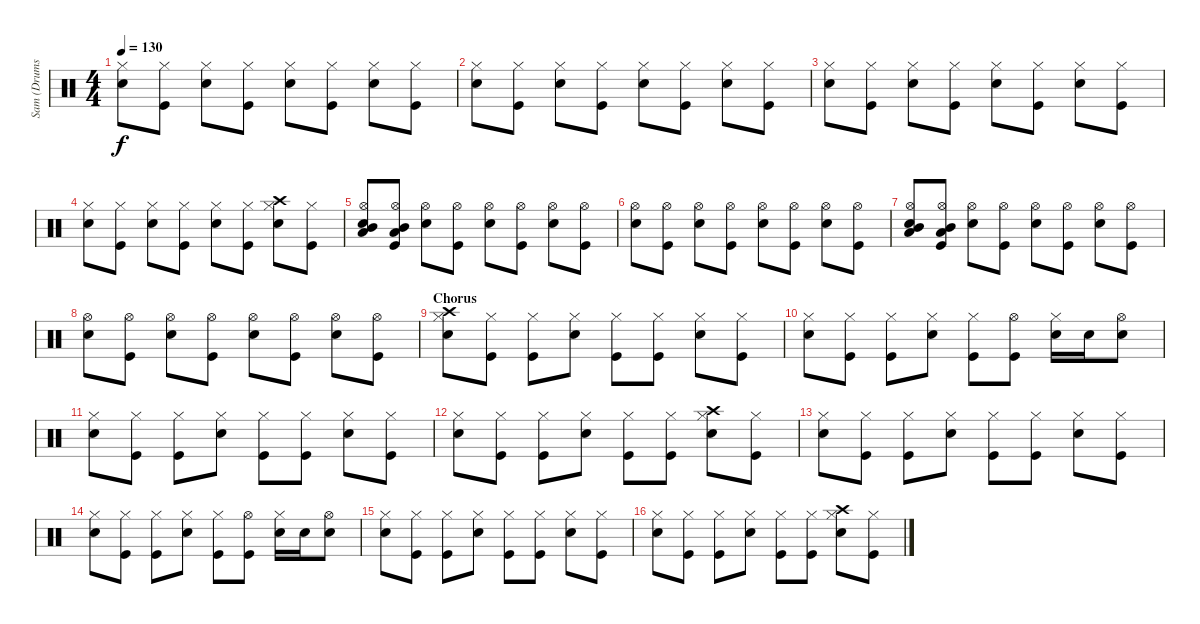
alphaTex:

\track ("Sam (Drums)" "Sam (Drums") {instrument percussion}
\staff {score}
\articulation defaults
\ts (4 4)
\tempo 130
\clef neutral
\ks c
("Hi-Hat (closed)" "Snare (hit) 2").8{dy f} ("Hi-Hat (closed)" "Kick (hit)").8 ("Hi-Hat (closed)" "Snare (hit) 2").8 ("Hi-Hat (closed)" "Kick (hit)").8 ("Hi-Hat (closed)" "Snare (hit) 2").8 ("Hi-Hat (closed)" "Kick (hit)").8 ("Hi-Hat (closed)" "Snare (hit) 2").8 ("Hi-Hat (closed)" "Kick (hit)").8 |
("Hi-Hat (closed)" "Snare (hit) 2").8 ("Hi-Hat (closed)" "Kick (hit)").8 ("Hi-Hat (closed)" "Snare (hit) 2").8 ("Hi-Hat (closed)" "Kick (hit)").8 ("Hi-Hat (closed)" "Snare (hit) 2").8 ("Hi-Hat (closed)" "Kick (hit)").8 ("Hi-Hat (closed)" "Snare (hit) 2").8 ("Hi-Hat (closed)" "Kick (hit)").8 |
("Hi-Hat (closed)" "Snare (hit) 2").8 ("Hi-Hat (closed)" "Kick (hit)").8 ("Hi-Hat (closed)" "Snare (hit) 2").8 ("Hi-Hat (closed)" "Kick (hit)").8 ("Hi-Hat (closed)" "Snare (hit) 2").8 ("Hi-Hat (closed)" "Kick (hit)").8 ("Hi-Hat (closed)" "Snare (hit) 2").8 ("Hi-Hat (closed)" "Kick (hit)").8 |
("Hi-Hat (closed)" "Snare (hit) 2").8 ("Hi-Hat (closed)" "Kick (hit)").8 ("Hi-Hat (closed)" "Snare (hit) 2").8 ("Hi-Hat (closed)" "Kick (hit)").8 ("Hi-Hat (closed)" "Snare (hit) 2").8 ("Hi-Hat (closed)" "Kick (hit)").8 ("Crash high (hit)" "Hi-Hat (closed)" "Snare (hit) 2").8 ("Hi-Hat (closed)" "Kick (hit)").8 |
("Hi-Hat (open)" "Low Tom (hit)" "Mid Tom (hit)" "Snare (hit) 2").8 ("Hi-Hat (open)" "Low Tom (hit)" "Mid Tom (hit)" "Kick (hit)").8 ("Hi-Hat (open)" "Snare (hit) 2").8 ("Hi-Hat (open)" "Kick (hit)").8 ("Hi-Hat (open)" "Snare (hit) 2").8 ("Hi-Hat (open)" "Kick (hit)").8 ("Hi-Hat (open)" "Snare (hit) 2").8 ("Hi-Hat (open)" "Kick (hit)").8 |
("Hi-Hat (open)" "Snare (hit) 2").8 ("Hi-Hat (open)" "Kick (hit)").8 ("Hi-Hat (open)" "Snare (hit) 2").8 ("Hi-Hat (open)" "Kick (hit)").8 ("Hi-Hat (open)" "Snare (hit) 2").8 ("Hi-Hat (open)" "Kick (hit)").8 ("Hi-Hat (open)" "Snare (hit) 2").8 ("Hi-Hat (open)" "Kick (hit)").8 |
("Hi-Hat (open)" "Low Tom (hit)" "Mid Tom (hit)" "Snare (hit) 2").8 ("Hi-Hat (open)" "Low Tom (hit)" "Mid Tom (hit)" "Kick (hit)").8 ("Hi-Hat (open)" "Snare (hit) 2").8 ("Hi-Hat (open)" "Kick (hit)").8 ("Hi-Hat (open)" "Snare (hit) 2").8 ("Hi-Hat (open)" "Kick (hit)").8 ("Hi-Hat (open)" "Snare (hit) 2").8 ("Hi-Hat (open)" "Kick (hit)").8 |
("Hi-Hat (open)" "Snare (hit) 2").8 ("Hi-Hat (open)" "Kick (hit)").8 ("Hi-Hat (open)" "Snare (hit) 2").8 ("Hi-Hat (open)" "Kick (hit)").8 ("Hi-Hat (open)" "Snare (hit) 2").8 ("Hi-Hat (open)" "Kick (hit)").8 ("Hi-Hat (open)" "Snare (hit) 2").8 ("Hi-Hat (open)" "Kick (hit)").8 |
\section ("" "Chorus")
("Crash high (hit)" "Hi-Hat (closed)" "Snare (hit) 2").8{volume 16} ("Hi-Hat (closed)" "Kick (hit)").8 ("Hi-Hat (closed)" "Kick (hit)").8 ("Hi-Hat (closed)" "Snare (hit) 2").8 ("Hi-Hat (closed)" "Kick (hit)").8 ("Hi-Hat (closed)" "Kick (hit)").8 ("Hi-Hat (closed)" "Snare (hit) 2").8 ("Hi-Hat (closed)" "Kick (hit)").8 |
("Hi-Hat (closed)" "Snare (hit) 2").8 ("Hi-Hat (closed)" "Kick (hit)").8 ("Hi-Hat (closed)" "Kick (hit)").8 ("Hi-Hat (closed)" "Snare (hit) 2").8 ("Hi-Hat (closed)" "Kick (hit)").8 ("Hi-Hat (open)" "Kick (hit)").8 ("Hi-Hat (closed)" "Snare (hit) 2").16 "Snare (hit) 2".16 ("Hi-Hat (open)" "Snare (hit) 2").8 |
("Hi-Hat (closed)" "Snare (hit) 2").8 ("Hi-Hat (closed)" "Kick (hit)").8 ("Hi-Hat (closed)" "Kick (hit)").8 ("Hi-Hat (closed)" "Snare (hit) 2").8 ("Hi-Hat (closed)" "Kick (hit)").8 ("Hi-Hat (closed)" "Kick (hit)").8 ("Hi-Hat (closed)" "Snare (hit) 2").8 ("Hi-Hat (closed)" "Kick (hit)").8 |
("Hi-Hat (closed)" "Snare (hit) 2").8 ("Hi-Hat (closed)" "Kick (hit)").8 ("Hi-Hat (closed)" "Kick (hit)").8 ("Hi-Hat (closed)" "Snare (hit) 2").8 ("Hi-Hat (closed)" "Kick (hit)").8 ("Hi-Hat (closed)" "Kick (hit)").8 ("Crash high (hit)" "Hi-Hat (closed)" "Snare (hit) 2").8 ("Hi-Hat (closed)" "Kick (hit)").8 |
("Hi-Hat (closed)" "Snare (hit) 2").8 ("Hi-Hat (closed)" "Kick (hit)").8 ("Hi-Hat (closed)" "Kick (hit)").8 ("Hi-Hat (closed)" "Snare (hit) 2").8 ("Hi-Hat (closed)" "Kick (hit)").8 ("Hi-Hat (closed)" "Kick (hit)").8 ("Hi-Hat (closed)" "Snare (hit) 2").8 ("Hi-Hat (closed)" "Kick (hit)").8 |
("Hi-Hat (closed)" "Snare (hit) 2").8 ("Hi-Hat (closed)" "Kick (hit)").8 ("Hi-Hat (closed)" "Kick (hit)").8 ("Hi-Hat (closed)" "Snare (hit) 2").8 ("Hi-Hat (closed)" "Kick (hit)").8 ("Hi-Hat (open)" "Kick (hit)").8 ("Hi-Hat (closed)" "Snare (hit) 2").16 "Snare (hit) 2".16 ("Hi-Hat (open)" "Snare (hit) 2").8 |
("Hi-Hat (closed)" "Snare (hit) 2").8 ("Hi-Hat (closed)" "Kick (hit)").8 ("Hi-Hat (closed)" "Kick (hit)").8 ("Hi-Hat (closed)" "Snare (hit) 2").8 ("Hi-Hat (closed)" "Kick (hit)").8 ("Hi-Hat (closed)" "Kick (hit)").8 ("Hi-Hat (closed)" "Snare (hit) 2").8 ("Hi-Hat (closed)" "Kick (hit)").8 |
("Hi-Hat (closed)" "Snare (hit) 2").8 ("Hi-Hat (closed)" "Kick (hit)").8 ("Hi-Hat (closed)" "Kick (hit)").8 ("Hi-Hat (closed)" "Snare (hit) 2").8 ("Hi-Hat (closed)" "Kick (hit)").8 ("Hi-Hat (closed)" "Kick (hit)").8 ("Crash high (hit)" "Hi-Hat (closed)" "Snare (hit) 2").8 ("Hi-Hat (closed)" "Kick (hit)").8
